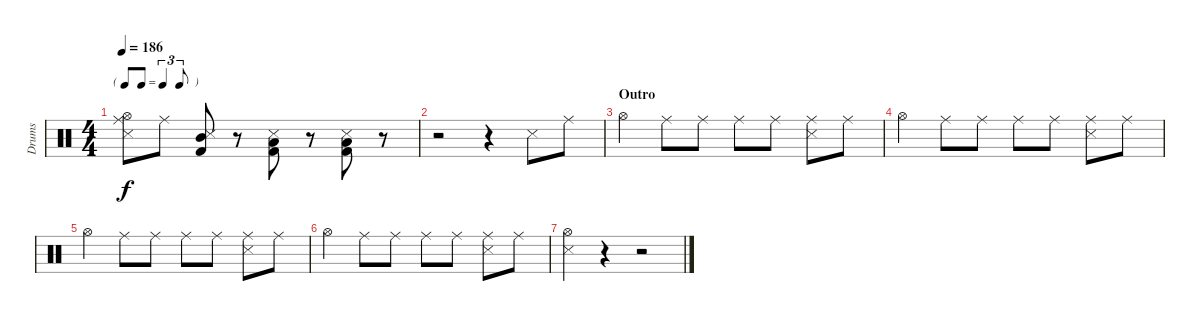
\track ("Drums" "Drums") {instrument percussion}
\staff {score}
\articulation defaults
\ts (4 4)
\tf triplet8th
\tempo 186
\clef neutral
\ks c
("Hi-Hat (open)" "Ride (middle)" "Snare (side stick) 3").8{dy f} "Ride (middle)".8 ("Mid Tom (hit)" "Snare (side stick) 3" "Kick (hit) 2").8 r.8 ("Low Tom (hit)" "Snare (side stick) 3" "Kick (hit) 2").8 r.8 ("Low Tom (hit)" "Snare (side stick) 3" "Kick (hit) 2").8 r.8 |
r.2 r.4 "Snare (side stick) 3".8 "Ride (middle)".8 |
\section ("" "Outro")
"Hi-Hat (open)".4 "Ride (middle)".8 "Ride (middle)".8 "Ride (middle)".8 "Ride (middle)".8 ("Ride (middle)" "Snare (side stick) 3").8 "Ride (middle)".8 |
"Hi-Hat (open)".4 "Ride (middle)".8 "Ride (middle)".8 "Ride (middle)".8 "Ride (middle)".8 ("Ride (middle)" "Snare (side stick) 3").8 "Ride (middle)".8 |
"Hi-Hat (open)".4 "Ride (middle)".8 "Ride (middle)".8 "Ride (middle)".8 "Ride (middle)".8 ("Ride (middle)" "Snare (side stick) 3").8 "Ride (middle)".8 |
"Hi-Hat (open)".4 "Ride (middle)".8 "Ride (middle)".8 "Ride (middle)".8 "Ride (middle)".8 ("Ride (middle)" "Snare (side stick) 3").8 "Ride (middle)".8 |
("Hi-Hat (open)" "Snare (side stick) 3").4 r.4 r.2
